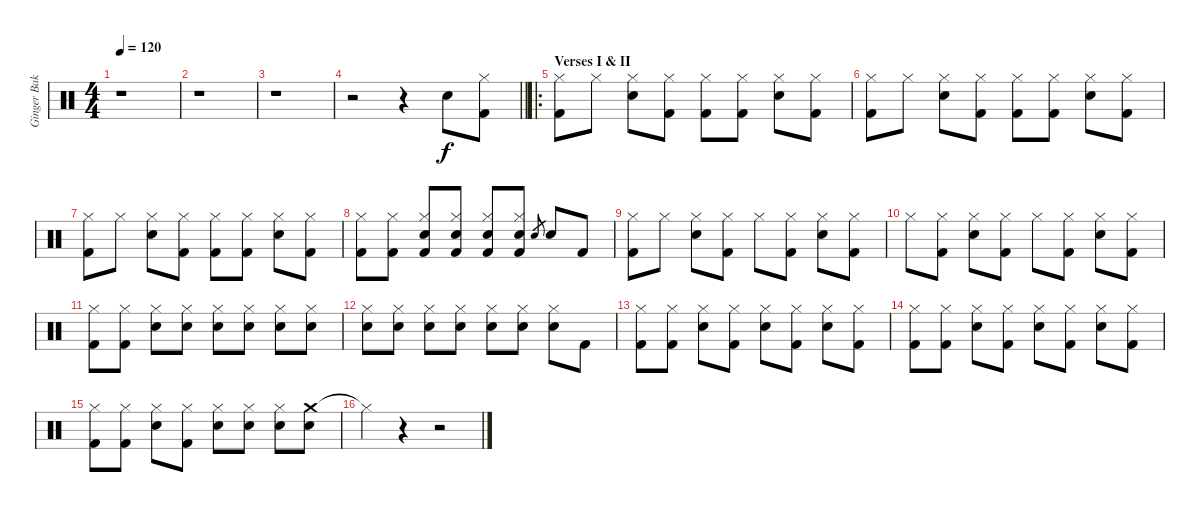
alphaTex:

\track ("Ginger Baker Drums" "Ginger Bak") {instrument percussion}
\staff {score}
\articulation defaults
\ts (4 4)
\tempo 120
\clef neutral
\ks c
r.1{dy f} |
r.1 |
r.1 |
\barLineRight lightlight
r.2 r.4 "Snare (hit) 2".8 ("Hi-Hat (closed)" "Kick (hit) 2").8 |
\ro
\section ("" "Verses I & II")
("Hi-Hat (closed)" "Kick (hit) 2").8 "Hi-Hat (closed)".8 ("Hi-Hat (closed)" "Snare (hit) 2").8 ("Hi-Hat (closed)" "Kick (hit) 2").8 ("Hi-Hat (closed)" "Kick (hit) 2").8 ("Hi-Hat (closed)" "Kick (hit) 2").8 ("Hi-Hat (closed)" "Snare (hit) 2").8 ("Hi-Hat (closed)" "Kick (hit) 2").8 |
("Hi-Hat (closed)" "Kick (hit) 2").8 "Hi-Hat (closed)".8 ("Hi-Hat (closed)" "Snare (hit) 2").8 ("Hi-Hat (closed)" "Kick (hit) 2").8 ("Hi-Hat (closed)" "Kick (hit) 2").8 ("Hi-Hat (closed)" "Kick (hit) 2").8 ("Hi-Hat (closed)" "Snare (hit) 2").8 ("Hi-Hat (closed)" "Kick (hit) 2").8 |
("Hi-Hat (closed)" "Kick (hit) 2").8 "Hi-Hat (closed)".8 ("Hi-Hat (closed)" "Snare (hit) 2").8 ("Hi-Hat (closed)" "Kick (hit) 2").8 ("Hi-Hat (closed)" "Kick (hit) 2").8 ("Hi-Hat (closed)" "Kick (hit) 2").8 ("Hi-Hat (closed)" "Snare (hit) 2").8 ("Hi-Hat (closed)" "Kick (hit) 2").8 |
("Hi-Hat (closed)" "Kick (hit) 2").8 ("Hi-Hat (closed)" "Kick (hit) 2").8 ("Hi-Hat (closed)" "Snare (hit) 2" "Kick (hit) 2").8 ("Hi-Hat (closed)" "Snare (hit) 2" "Kick (hit) 2").8 ("Hi-Hat (closed)" "Snare (hit) 2" "Kick (hit) 2").8 ("Hi-Hat (closed)" "Snare (hit) 2" "Kick (hit) 2").8 "Snare (hit) 2".8{gr} "Snare (hit) 2".8 "Kick (hit) 2".8 |
("Hi-Hat (closed)" "Kick (hit) 2").8 "Hi-Hat (closed)".8 ("Hi-Hat (closed)" "Snare (hit) 2").8 ("Hi-Hat (closed)" "Kick (hit) 2").8 "Hi-Hat (closed)".8 ("Hi-Hat (closed)" "Kick (hit) 2").8 ("Hi-Hat (closed)" "Snare (hit) 2").8 ("Hi-Hat (closed)" "Kick (hit) 2").8 |
"Hi-Hat (closed)".8 ("Hi-Hat (closed)" "Kick (hit) 2").8 ("Hi-Hat (closed)" "Snare (hit) 2").8 ("Hi-Hat (closed)" "Kick (hit) 2").8 "Hi-Hat (closed)".8 ("Hi-Hat (closed)" "Kick (hit) 2").8 ("Hi-Hat (closed)" "Snare (hit) 2").8 ("Hi-Hat (closed)" "Kick (hit) 2").8 |
("Hi-Hat (closed)" "Kick (hit) 2").8 ("Hi-Hat (closed)" "Kick (hit) 2").8 ("Hi-Hat (closed)" "Snare (hit) 2").8 ("Hi-Hat (closed)" "Snare (hit) 2").8 ("Hi-Hat (closed)" "Snare (hit) 2").8 ("Hi-Hat (closed)" "Snare (hit) 2").8 ("Hi-Hat (closed)" "Snare (hit) 2").8 ("Hi-Hat (closed)" "Snare (hit) 2").8 |
("Hi-Hat (closed)" "Snare (hit) 2").8 ("Hi-Hat (closed)" "Snare (hit) 2").8 ("Hi-Hat (closed)" "Snare (hit) 2").8 ("Hi-Hat (closed)" "Snare (hit) 2").8 ("Hi-Hat (closed)" "Snare (hit) 2").8 ("Hi-Hat (closed)" "Snare (hit) 2").8 ("Hi-Hat (closed)" "Snare (hit) 2").8 "Kick (hit) 2".8 |
("Hi-Hat (closed)" "Kick (hit) 2").8 ("Hi-Hat (closed)" "Kick (hit) 2").8 ("Hi-Hat (closed)" "Snare (hit) 2").8 ("Hi-Hat (closed)" "Kick (hit) 2").8 ("Hi-Hat (closed)" "Snare (hit) 2").8 ("Hi-Hat (closed)" "Kick (hit) 2").8 ("Hi-Hat (closed)" "Snare (hit) 2").8 ("Hi-Hat (closed)" "Kick (hit) 2").8 |
("Hi-Hat (closed)" "Kick (hit) 2").8 ("Hi-Hat (closed)" "Kick (hit) 2").8 ("Hi-Hat (closed)" "Snare (hit) 2").8 ("Hi-Hat (closed)" "Kick (hit) 2").8 ("Hi-Hat (closed)" "Snare (hit) 2").8 ("Hi-Hat (closed)" "Kick (hit) 2").8 ("Hi-Hat (closed)" "Snare (hit) 2").8 ("Hi-Hat (closed)" "Kick (hit) 2").8 |
("Hi-Hat (closed)" "Kick (hit) 2").8 ("Hi-Hat (closed)" "Kick (hit) 2").8 ("Hi-Hat (closed)" "Snare (hit) 2").8 ("Hi-Hat (closed)" "Kick (hit) 2").8 ("Hi-Hat (closed)" "Snare (hit) 2").8 ("Hi-Hat (closed)" "Snare (hit) 2").8 ("Hi-Hat (closed)" "Snare (hit) 2").8 ("Crash medium (hit)" "Snare (hit) 2").8 |
"Hi-Hat (closed)"{t}.4 r.4 r.2
